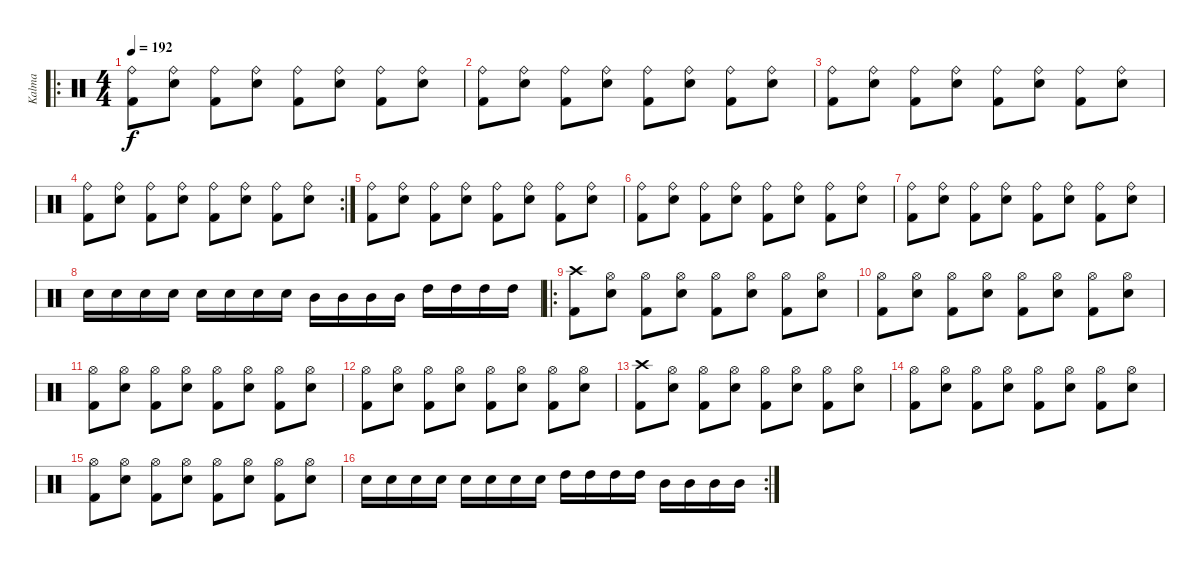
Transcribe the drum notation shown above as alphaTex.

\track ("Kalma" "Kalma") {instrument percussion}
\staff {score}
\articulation defaults
\ro
\ts (4 4)
\tempo 192
\clef neutral
\ks c
("Ride (bell)" "Kick (hit) 2").8{dy f} ("Ride (bell)" "Snare (hit) 2").8 ("Ride (bell)" "Kick (hit) 2").8 ("Ride (bell)" "Snare (hit) 2").8 ("Ride (bell)" "Kick (hit) 2").8 ("Ride (bell)" "Snare (hit) 2").8 ("Ride (bell)" "Kick (hit) 2").8 ("Ride (bell)" "Snare (hit) 2").8 |
("Ride (bell)" "Kick (hit) 2").8 ("Ride (bell)" "Snare (hit) 2").8 ("Ride (bell)" "Kick (hit) 2").8 ("Ride (bell)" "Snare (hit) 2").8 ("Ride (bell)" "Kick (hit) 2").8 ("Ride (bell)" "Snare (hit) 2").8 ("Ride (bell)" "Kick (hit) 2").8 ("Ride (bell)" "Snare (hit) 2").8 |
("Ride (bell)" "Kick (hit) 2").8 ("Ride (bell)" "Snare (hit) 2").8 ("Ride (bell)" "Kick (hit) 2").8 ("Ride (bell)" "Snare (hit) 2").8 ("Ride (bell)" "Kick (hit) 2").8 ("Ride (bell)" "Snare (hit) 2").8 ("Ride (bell)" "Kick (hit) 2").8 ("Ride (bell)" "Snare (hit) 2").8 |
\rc 2
("Ride (bell)" "Kick (hit) 2").8 ("Ride (bell)" "Snare (hit) 2").8 ("Ride (bell)" "Kick (hit) 2").8 ("Ride (bell)" "Snare (hit) 2").8 ("Ride (bell)" "Kick (hit) 2").8 ("Ride (bell)" "Snare (hit) 2").8 ("Ride (bell)" "Kick (hit) 2").8 ("Ride (bell)" "Snare (hit) 2").8 |
("Ride (bell)" "Kick (hit) 2").8 ("Ride (bell)" "Snare (hit) 2").8 ("Ride (bell)" "Kick (hit) 2").8 ("Ride (bell)" "Snare (hit) 2").8 ("Ride (bell)" "Kick (hit) 2").8 ("Ride (bell)" "Snare (hit) 2").8 ("Ride (bell)" "Kick (hit) 2").8 ("Ride (bell)" "Snare (hit) 2").8 |
("Ride (bell)" "Kick (hit) 2").8 ("Ride (bell)" "Snare (hit) 2").8 ("Ride (bell)" "Kick (hit) 2").8 ("Ride (bell)" "Snare (hit) 2").8 ("Ride (bell)" "Kick (hit) 2").8 ("Ride (bell)" "Snare (hit) 2").8 ("Ride (bell)" "Kick (hit) 2").8 ("Ride (bell)" "Snare (hit) 2").8 |
("Ride (bell)" "Kick (hit) 2").8 ("Ride (bell)" "Snare (hit) 2").8 ("Ride (bell)" "Kick (hit) 2").8 ("Ride (bell)" "Snare (hit) 2").8 ("Ride (bell)" "Kick (hit) 2").8 ("Ride (bell)" "Snare (hit) 2").8 ("Ride (bell)" "Kick (hit) 2").8 ("Ride (bell)" "Snare (hit) 2").8 |
"Snare (hit) 2".16 "Snare (hit) 2".16 "Snare (hit) 2".16 "Snare (hit) 2".16 "Snare (hit) 2".16 "Snare (hit) 2".16 "Snare (hit) 2".16 "Snare (hit) 2".16 "Mid Tom (hit)".16 "Mid Tom (hit)".16 "Mid Tom (hit)".16 "Mid Tom (hit)".16 "High Tom (hit)".16 "High Tom (hit)".16 "High Tom (hit)".16 "High Tom (hit)".16 |
\ro
("Crash high (hit)" "Kick (hit) 2").8 ("Hi-Hat (open)" "Snare (hit) 2").8 ("Hi-Hat (open)" "Kick (hit) 2").8 ("Hi-Hat (open)" "Snare (hit) 2").8 ("Hi-Hat (open)" "Kick (hit) 2").8 ("Hi-Hat (open)" "Snare (hit) 2").8 ("Hi-Hat (open)" "Kick (hit) 2").8 ("Hi-Hat (open)" "Snare (hit) 2").8 |
("Hi-Hat (open)" "Kick (hit) 2").8 ("Hi-Hat (open)" "Snare (hit) 2").8 ("Hi-Hat (open)" "Kick (hit) 2").8 ("Hi-Hat (open)" "Snare (hit) 2").8 ("Hi-Hat (open)" "Kick (hit) 2").8 ("Hi-Hat (open)" "Snare (hit) 2").8 ("Hi-Hat (open)" "Kick (hit) 2").8 ("Hi-Hat (open)" "Snare (hit) 2").8 |
("Hi-Hat (open)" "Kick (hit) 2").8 ("Hi-Hat (open)" "Snare (hit) 2").8 ("Hi-Hat (open)" "Kick (hit) 2").8 ("Hi-Hat (open)" "Snare (hit) 2").8 ("Hi-Hat (open)" "Kick (hit) 2").8 ("Hi-Hat (open)" "Snare (hit) 2").8 ("Hi-Hat (open)" "Kick (hit) 2").8 ("Hi-Hat (open)" "Snare (hit) 2").8 |
("Hi-Hat (open)" "Kick (hit) 2").8 ("Hi-Hat (open)" "Snare (hit) 2").8 ("Hi-Hat (open)" "Kick (hit) 2").8 ("Hi-Hat (open)" "Snare (hit) 2").8 ("Hi-Hat (open)" "Kick (hit) 2").8 ("Hi-Hat (open)" "Snare (hit) 2").8 ("Hi-Hat (open)" "Kick (hit) 2").8 ("Hi-Hat (open)" "Snare (hit) 2").8 |
("Crash high (hit)" "Kick (hit) 2").8 ("Hi-Hat (open)" "Snare (hit) 2").8 ("Hi-Hat (open)" "Kick (hit) 2").8 ("Hi-Hat (open)" "Snare (hit) 2").8 ("Hi-Hat (open)" "Kick (hit) 2").8 ("Hi-Hat (open)" "Snare (hit) 2").8 ("Hi-Hat (open)" "Kick (hit) 2").8 ("Hi-Hat (open)" "Snare (hit) 2").8 |
("Hi-Hat (open)" "Kick (hit) 2").8 ("Hi-Hat (open)" "Snare (hit) 2").8 ("Hi-Hat (open)" "Kick (hit) 2").8 ("Hi-Hat (open)" "Snare (hit) 2").8 ("Hi-Hat (open)" "Kick (hit) 2").8 ("Hi-Hat (open)" "Snare (hit) 2").8 ("Hi-Hat (open)" "Kick (hit) 2").8 ("Hi-Hat (open)" "Snare (hit) 2").8 |
("Hi-Hat (open)" "Kick (hit) 2").8 ("Hi-Hat (open)" "Snare (hit) 2").8 ("Hi-Hat (open)" "Kick (hit) 2").8 ("Hi-Hat (open)" "Snare (hit) 2").8 ("Hi-Hat (open)" "Kick (hit) 2").8 ("Hi-Hat (open)" "Snare (hit) 2").8 ("Hi-Hat (open)" "Kick (hit) 2").8 ("Hi-Hat (open)" "Snare (hit) 2").8 |
\rc 2 "Snare (hit) 2".16 "Snare (hit) 2".16 "Snare (hit) 2".16 "Snare (hit) 2".16 "Snare (hit) 2".16 "Snare (hit) 2".16 "Snare (hit) 2".16 "Snare (hit) 2".16 "High Tom (hit)".16 "High Tom (hit)".16 "High Tom (hit)".16 "High Tom (hit)".16 "Mid Tom (hit)".16 "Mid Tom (hit)".16 "Mid Tom (hit)".16 "Mid Tom (hit)".16
